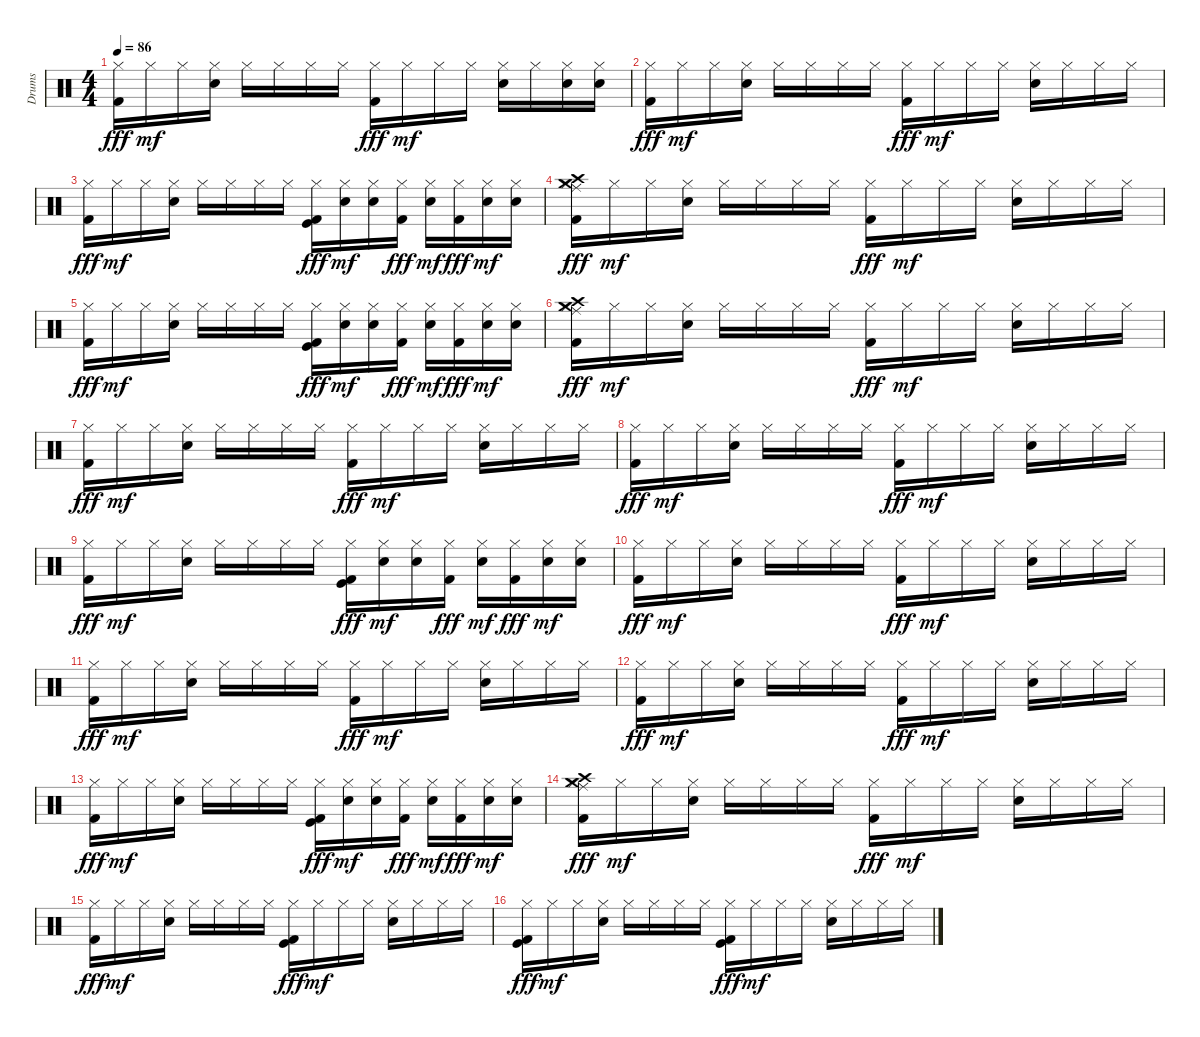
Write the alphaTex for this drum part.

\track ("Drums" "Drums") {instrument percussion}
\staff {score}
\articulation defaults
\ts (4 4)
\tempo 86
\clef neutral
\ks c
("Hi-Hat (closed)" "Kick (hit) 2").16{dy fff} "Hi-Hat (closed)".16{dy mf} "Hi-Hat (closed)".16 ("Hi-Hat (closed)" "Snare (hit) 2").16 "Hi-Hat (closed)".16 "Hi-Hat (closed)".16 "Hi-Hat (closed)".16 "Hi-Hat (closed)".16 ("Hi-Hat (closed)" "Kick (hit) 2").16{dy fff} "Hi-Hat (closed)".16{dy mf} "Hi-Hat (closed)".16 "Hi-Hat (closed)".16 ("Hi-Hat (closed)" "Snare (hit) 2").16 "Hi-Hat (closed)".16 ("Hi-Hat (closed)" "Snare (hit) 2").16 ("Hi-Hat (closed)" "Snare (hit) 2").16 |
("Hi-Hat (closed)" "Kick (hit) 2").16{dy fff} "Hi-Hat (closed)".16{dy mf} "Hi-Hat (closed)".16 ("Hi-Hat (closed)" "Snare (hit) 2").16 "Hi-Hat (closed)".16 "Hi-Hat (closed)".16 "Hi-Hat (closed)".16 "Hi-Hat (closed)".16 ("Hi-Hat (closed)" "Kick (hit) 2").16{dy fff} "Hi-Hat (closed)".16{dy mf} "Hi-Hat (closed)".16 "Hi-Hat (closed)".16 ("Hi-Hat (closed)" "Snare (hit) 2").16 "Hi-Hat (closed)".16 "Hi-Hat (closed)".16 "Hi-Hat (closed)".16 |
("Hi-Hat (closed)" "Kick (hit) 2").16{dy fff} "Hi-Hat (closed)".16{dy mf} "Hi-Hat (closed)".16 ("Hi-Hat (closed)" "Snare (hit) 2").16 "Hi-Hat (closed)".16 "Hi-Hat (closed)".16 "Hi-Hat (closed)".16 "Hi-Hat (closed)".16 ("Hi-Hat (closed)" "Kick (hit)" "Kick (hit) 2").16{dy fff} ("Hi-Hat (closed)" "Snare (hit) 2").16{dy mf} ("Hi-Hat (closed)" "Snare (hit) 2").16 ("Hi-Hat (closed)" "Kick (hit) 2").16{dy fff} ("Hi-Hat (closed)" "Snare (hit) 2").16{dy mf} ("Hi-Hat (closed)" "Kick (hit) 2").16{dy fff} ("Hi-Hat (closed)" "Snare (hit) 2").16{dy mf} ("Hi-Hat (closed)" "Snare (hit) 2").16 |
("Hi-Hat (closed)" "Crash high (hit)" "Ride (middle)" "Crash medium (hit)" "Kick (hit) 2").16{dy fff} "Hi-Hat (closed)".16{dy mf} "Hi-Hat (closed)".16 ("Hi-Hat (closed)" "Snare (hit) 2").16 "Hi-Hat (closed)".16 "Hi-Hat (closed)".16 "Hi-Hat (closed)".16 "Hi-Hat (closed)".16 ("Hi-Hat (closed)" "Kick (hit) 2").16{dy fff} "Hi-Hat (closed)".16{dy mf} "Hi-Hat (closed)".16 "Hi-Hat (closed)".16 ("Hi-Hat (closed)" "Snare (hit) 2").16 "Hi-Hat (closed)".16 "Hi-Hat (closed)".16 "Hi-Hat (closed)".16 |
("Hi-Hat (closed)" "Kick (hit) 2").16{dy fff} "Hi-Hat (closed)".16{dy mf} "Hi-Hat (closed)".16 ("Hi-Hat (closed)" "Snare (hit) 2").16 "Hi-Hat (closed)".16 "Hi-Hat (closed)".16 "Hi-Hat (closed)".16 "Hi-Hat (closed)".16 ("Hi-Hat (closed)" "Kick (hit)" "Kick (hit) 2").16{dy fff} ("Hi-Hat (closed)" "Snare (hit) 2").16{dy mf} ("Hi-Hat (closed)" "Snare (hit) 2").16 ("Hi-Hat (closed)" "Kick (hit) 2").16{dy fff} ("Hi-Hat (closed)" "Snare (hit) 2").16{dy mf} ("Hi-Hat (closed)" "Kick (hit) 2").16{dy fff} ("Hi-Hat (closed)" "Snare (hit) 2").16{dy mf} ("Hi-Hat (closed)" "Snare (hit) 2").16 |
("Hi-Hat (closed)" "Crash high (hit)" "Ride (middle)" "Crash medium (hit)" "Kick (hit) 2").16{dy fff} "Hi-Hat (closed)".16{dy mf} "Hi-Hat (closed)".16 ("Hi-Hat (closed)" "Snare (hit) 2").16 "Hi-Hat (closed)".16 "Hi-Hat (closed)".16 "Hi-Hat (closed)".16 "Hi-Hat (closed)".16 ("Hi-Hat (closed)" "Kick (hit) 2").16{dy fff} "Hi-Hat (closed)".16{dy mf} "Hi-Hat (closed)".16 "Hi-Hat (closed)".16 ("Hi-Hat (closed)" "Snare (hit) 2").16 "Hi-Hat (closed)".16 "Hi-Hat (closed)".16 "Hi-Hat (closed)".16 |
("Hi-Hat (closed)" "Kick (hit) 2").16{dy fff} "Hi-Hat (closed)".16{dy mf} "Hi-Hat (closed)".16 ("Hi-Hat (closed)" "Snare (hit) 2").16 "Hi-Hat (closed)".16 "Hi-Hat (closed)".16 "Hi-Hat (closed)".16 "Hi-Hat (closed)".16 ("Hi-Hat (closed)" "Kick (hit) 2").16{dy fff} "Hi-Hat (closed)".16{dy mf} "Hi-Hat (closed)".16 "Hi-Hat (closed)".16 ("Hi-Hat (closed)" "Snare (hit) 2").16 "Hi-Hat (closed)".16 "Hi-Hat (closed)".16 "Hi-Hat (closed)".16 |
("Hi-Hat (closed)" "Kick (hit) 2").16{dy fff} "Hi-Hat (closed)".16{dy mf} "Hi-Hat (closed)".16 ("Hi-Hat (closed)" "Snare (hit) 2").16 "Hi-Hat (closed)".16 "Hi-Hat (closed)".16 "Hi-Hat (closed)".16 "Hi-Hat (closed)".16 ("Hi-Hat (closed)" "Kick (hit) 2").16{dy fff} "Hi-Hat (closed)".16{dy mf} "Hi-Hat (closed)".16 "Hi-Hat (closed)".16 ("Hi-Hat (closed)" "Snare (hit) 2").16 "Hi-Hat (closed)".16 "Hi-Hat (closed)".16 "Hi-Hat (closed)".16 |
("Hi-Hat (closed)" "Kick (hit) 2").16{dy fff} "Hi-Hat (closed)".16{dy mf} "Hi-Hat (closed)".16 ("Hi-Hat (closed)" "Snare (hit) 2").16 "Hi-Hat (closed)".16 "Hi-Hat (closed)".16 "Hi-Hat (closed)".16 "Hi-Hat (closed)".16 ("Hi-Hat (closed)" "Kick (hit)" "Kick (hit) 2").16{dy fff} ("Hi-Hat (closed)" "Snare (hit) 2").16{dy mf} ("Hi-Hat (closed)" "Snare (hit) 2").16 ("Hi-Hat (closed)" "Kick (hit) 2").16{dy fff} ("Hi-Hat (closed)" "Snare (hit) 2").16{dy mf} ("Hi-Hat (closed)" "Kick (hit) 2").16{dy fff} ("Hi-Hat (closed)" "Snare (hit) 2").16{dy mf} ("Hi-Hat (closed)" "Snare (hit) 2").16 |
("Hi-Hat (closed)" "Kick (hit) 2").16{dy fff} "Hi-Hat (closed)".16{dy mf} "Hi-Hat (closed)".16 ("Hi-Hat (closed)" "Snare (hit) 2").16 "Hi-Hat (closed)".16 "Hi-Hat (closed)".16 "Hi-Hat (closed)".16 "Hi-Hat (closed)".16 ("Hi-Hat (closed)" "Kick (hit) 2").16{dy fff} "Hi-Hat (closed)".16{dy mf} "Hi-Hat (closed)".16 "Hi-Hat (closed)".16 ("Hi-Hat (closed)" "Snare (hit) 2").16 "Hi-Hat (closed)".16 "Hi-Hat (closed)".16 "Hi-Hat (closed)".16 |
("Hi-Hat (closed)" "Kick (hit) 2").16{dy fff} "Hi-Hat (closed)".16{dy mf} "Hi-Hat (closed)".16 ("Hi-Hat (closed)" "Snare (hit) 2").16 "Hi-Hat (closed)".16 "Hi-Hat (closed)".16 "Hi-Hat (closed)".16 "Hi-Hat (closed)".16 ("Hi-Hat (closed)" "Kick (hit) 2").16{dy fff} "Hi-Hat (closed)".16{dy mf} "Hi-Hat (closed)".16 "Hi-Hat (closed)".16 ("Hi-Hat (closed)" "Snare (hit) 2").16 "Hi-Hat (closed)".16 "Hi-Hat (closed)".16 "Hi-Hat (closed)".16 |
("Hi-Hat (closed)" "Kick (hit) 2").16{dy fff} "Hi-Hat (closed)".16{dy mf} "Hi-Hat (closed)".16 ("Hi-Hat (closed)" "Snare (hit) 2").16 "Hi-Hat (closed)".16 "Hi-Hat (closed)".16 "Hi-Hat (closed)".16 "Hi-Hat (closed)".16 ("Hi-Hat (closed)" "Kick (hit) 2").16{dy fff} "Hi-Hat (closed)".16{dy mf} "Hi-Hat (closed)".16 "Hi-Hat (closed)".16 ("Hi-Hat (closed)" "Snare (hit) 2").16 "Hi-Hat (closed)".16 "Hi-Hat (closed)".16 "Hi-Hat (closed)".16 |
("Hi-Hat (closed)" "Kick (hit) 2").16{dy fff} "Hi-Hat (closed)".16{dy mf} "Hi-Hat (closed)".16 ("Hi-Hat (closed)" "Snare (hit) 2").16 "Hi-Hat (closed)".16 "Hi-Hat (closed)".16 "Hi-Hat (closed)".16 "Hi-Hat (closed)".16 ("Hi-Hat (closed)" "Kick (hit)" "Kick (hit) 2").16{dy fff} ("Hi-Hat (closed)" "Snare (hit) 2").16{dy mf} ("Hi-Hat (closed)" "Snare (hit) 2").16 ("Hi-Hat (closed)" "Kick (hit) 2").16{dy fff} ("Hi-Hat (closed)" "Snare (hit) 2").16{dy mf} ("Hi-Hat (closed)" "Kick (hit) 2").16{dy fff} ("Hi-Hat (closed)" "Snare (hit) 2").16{dy mf} ("Hi-Hat (closed)" "Snare (hit) 2").16 |
("Hi-Hat (closed)" "Crash high (hit)" "Ride (middle)" "Crash medium (hit)" "Kick (hit) 2").16{dy fff} "Hi-Hat (closed)".16{dy mf} "Hi-Hat (closed)".16 ("Hi-Hat (closed)" "Snare (hit) 2").16 "Hi-Hat (closed)".16 "Hi-Hat (closed)".16 "Hi-Hat (closed)".16 "Hi-Hat (closed)".16 ("Hi-Hat (closed)" "Kick (hit) 2").16{dy fff} "Hi-Hat (closed)".16{dy mf} "Hi-Hat (closed)".16 "Hi-Hat (closed)".16 ("Hi-Hat (closed)" "Snare (hit) 2").16 "Hi-Hat (closed)".16 "Hi-Hat (closed)".16 "Hi-Hat (closed)".16 |
("Hi-Hat (closed)" "Kick (hit) 2").16{dy fff} "Hi-Hat (closed)".16{dy mf} "Hi-Hat (closed)".16 ("Hi-Hat (closed)" "Snare (hit) 2").16 "Hi-Hat (closed)".16 "Hi-Hat (closed)".16 "Hi-Hat (closed)".16 "Hi-Hat (closed)".16 ("Hi-Hat (closed)" "Kick (hit)" "Kick (hit) 2").16{dy fff} "Hi-Hat (closed)".16{dy mf} "Hi-Hat (closed)".16 "Hi-Hat (closed)".16 ("Hi-Hat (closed)" "Snare (hit) 2").16 "Hi-Hat (closed)".16 "Hi-Hat (closed)".16 "Hi-Hat (closed)".16 |
("Hi-Hat (closed)" "Kick (hit)" "Kick (hit) 2").16{dy fff} "Hi-Hat (closed)".16{dy mf} "Hi-Hat (closed)".16 ("Hi-Hat (closed)" "Snare (hit) 2").16 "Hi-Hat (closed)".16 "Hi-Hat (closed)".16 "Hi-Hat (closed)".16 "Hi-Hat (closed)".16 ("Hi-Hat (closed)" "Kick (hit)" "Kick (hit) 2").16{dy fff} "Hi-Hat (closed)".16{dy mf} "Hi-Hat (closed)".16 "Hi-Hat (closed)".16 ("Hi-Hat (closed)" "Snare (hit) 2").16 "Hi-Hat (closed)".16 "Hi-Hat (closed)".16 "Hi-Hat (closed)".16
